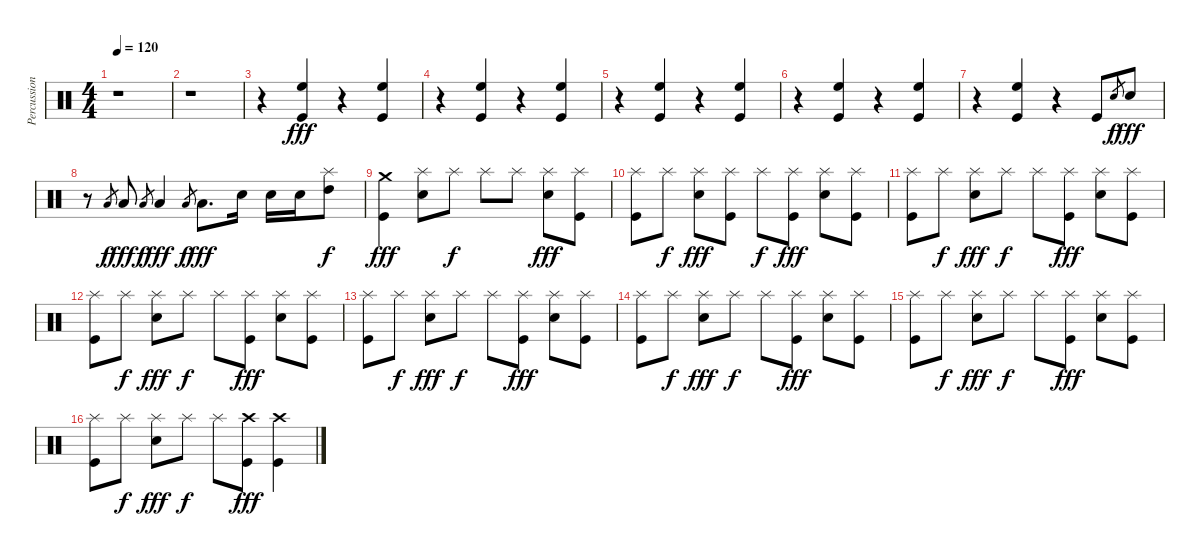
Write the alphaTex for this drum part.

\track ("Percussion" "Percussion") {solo instrument percussion}
\staff {score}
\articulation defaults
\ts (4 4)
\tempo 120
\clef neutral
\ks c
r.1{dy fff} |
r.1 |
r.4 ("High Floor Tom (hit)" "Kick (hit)").4 r.4 ("High Floor Tom (hit)" "Kick (hit)").4 |
r.4 ("High Floor Tom (hit)" "Kick (hit)").4 r.4 ("High Floor Tom (hit)" "Kick (hit)").4 |
r.4 ("High Floor Tom (hit)" "Kick (hit)").4 r.4 ("High Floor Tom (hit)" "Kick (hit)").4 |
r.4 ("High Floor Tom (hit)" "Kick (hit)").4 r.4 ("High Floor Tom (hit)" "Kick (hit)").4 |
r.4 ("High Floor Tom (hit)" "Kick (hit)").4 r.4 "Kick (hit)".8 "Snare (hit) 2".8{gr dy f} "Snare (hit) 2".8{dy fff} |
r.8 "Low Tom (hit)".8{gr dy f} "Low Tom (hit)".8{dy fff} "Low Tom (hit)".8{gr dy f} "Low Tom (hit)".4{dy fff} "Low Tom (hit)".8{gr dy f} "Low Tom (hit)".8{d dy fff} "Snare (hit) 2".16 "Snare (hit) 2".16 "Snare (hit) 2".16 ("Splash (hit)" "High Tom (hit)").8{dy f} |
("Crash medium (hit)" "Kick (hit)").4{dy fff} ("Splash (hit)" "Snare (hit) 2").8 "Splash (hit)".8{dy f} "Splash (hit)".8 "Splash (hit)".8 ("Splash (hit)" "Snare (hit) 2").8{dy fff} ("Splash (hit)" "Kick (hit)").8 |
("Splash (hit)" "Kick (hit)").8 "Splash (hit)".8{dy f} ("Splash (hit)" "Snare (hit) 2").8{dy fff} ("Splash (hit)" "Kick (hit)").8 "Splash (hit)".8{dy f} ("Splash (hit)" "Kick (hit)").8{dy fff} ("Splash (hit)" "Snare (hit) 2").8 ("Splash (hit)" "Kick (hit)").8 |
("Splash (hit)" "Kick (hit)").8 "Splash (hit)".8{dy f} ("Splash (hit)" "Snare (hit) 2").8{dy fff} "Splash (hit)".8{dy f} "Splash (hit)".8 ("Splash (hit)" "Kick (hit)").8{dy fff} ("Splash (hit)" "Snare (hit) 2").8 ("Splash (hit)" "Kick (hit)").8 |
("Splash (hit)" "Kick (hit)").8 "Splash (hit)".8{dy f} ("Splash (hit)" "Snare (hit) 2").8{dy fff} "Splash (hit)".8{dy f} "Splash (hit)".8 ("Splash (hit)" "Kick (hit)").8{dy fff} ("Splash (hit)" "Snare (hit) 2").8 ("Splash (hit)" "Kick (hit)").8 |
("Splash (hit)" "Kick (hit)").8 "Splash (hit)".8{dy f} ("Splash (hit)" "Snare (hit) 2").8{dy fff} "Splash (hit)".8{dy f} "Splash (hit)".8 ("Splash (hit)" "Kick (hit)").8{dy fff} ("Splash (hit)" "Snare (hit) 2").8 ("Splash (hit)" "Kick (hit)").8 |
("Splash (hit)" "Kick (hit)").8 "Splash (hit)".8{dy f} ("Splash (hit)" "Snare (hit) 2").8{dy fff} "Splash (hit)".8{dy f} "Splash (hit)".8 ("Splash (hit)" "Kick (hit)").8{dy fff} ("Splash (hit)" "Snare (hit) 2").8 ("Splash (hit)" "Kick (hit)").8 |
("Splash (hit)" "Kick (hit)").8 "Splash (hit)".8{dy f} ("Splash (hit)" "Snare (hit) 2").8{dy fff} "Splash (hit)".8{dy f} "Splash (hit)".8 ("Splash (hit)" "Kick (hit)").8{dy fff} ("Splash (hit)" "Snare (hit) 2").8 ("Splash (hit)" "Kick (hit)").8 |
("Splash (hit)" "Kick (hit)").8 "Splash (hit)".8{dy f} ("Splash (hit)" "Snare (hit) 2").8{dy fff} "Splash (hit)".8{dy f} "Splash (hit)".8 ("Crash high (hit)" "Kick (hit)").8{dy fff} ("Crash high (hit)" "Kick (hit)").4
